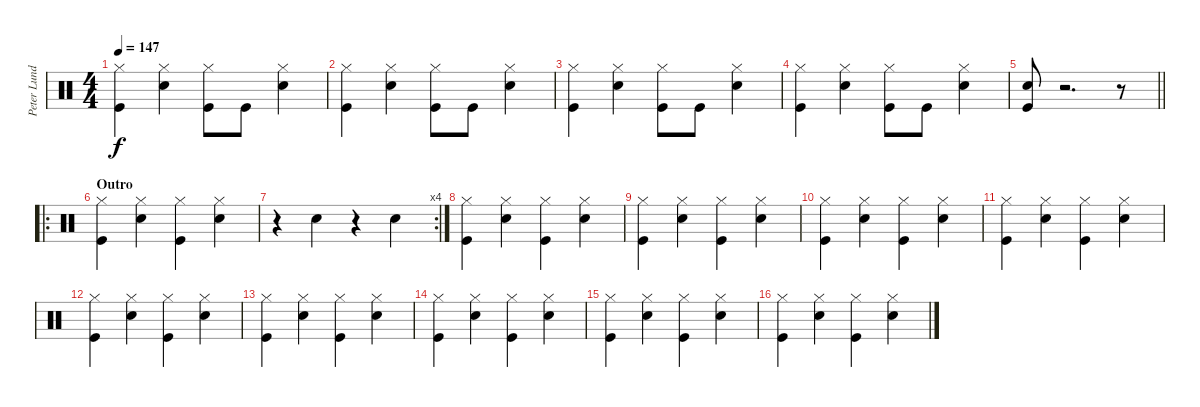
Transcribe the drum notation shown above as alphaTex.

\track ("Peter Lundholm Jensen" "Peter Lund") {instrument percussion}
\staff {score}
\articulation defaults
\ts (4 4)
\tempo 147
\clef neutral
\ks c
("Kick (hit)" "Hi-Hat (closed)").4{dy f} ("Snare (hit) 2" "Hi-Hat (closed)").4 ("Kick (hit)" "Hi-Hat (closed)").8 "Kick (hit)".8 ("Snare (hit) 2" "Hi-Hat (closed)").4 |
("Kick (hit)" "Hi-Hat (closed)").4 ("Snare (hit) 2" "Hi-Hat (closed)").4 ("Kick (hit)" "Hi-Hat (closed)").8 "Kick (hit)".8 ("Snare (hit) 2" "Hi-Hat (closed)").4 |
("Kick (hit)" "Hi-Hat (closed)").4 ("Snare (hit) 2" "Hi-Hat (closed)").4 ("Kick (hit)" "Hi-Hat (closed)").8 "Kick (hit)".8 ("Snare (hit) 2" "Hi-Hat (closed)").4 |
("Kick (hit)" "Hi-Hat (closed)").4 ("Snare (hit) 2" "Hi-Hat (closed)").4 ("Kick (hit)" "Hi-Hat (closed)").8 "Kick (hit)".8 ("Snare (hit) 2" "Hi-Hat (closed)").4 |
\barLineRight lightlight
("Kick (hit)" "Snare (hit) 2").8 r.2{d} r.8 |
\ro
\section ("" "Outro")
("Kick (hit)" "Hi-Hat (closed)").4 ("Snare (hit) 2" "Hi-Hat (closed)").4 ("Kick (hit)" "Hi-Hat (closed)").4 ("Snare (hit) 2" "Hi-Hat (closed)").4 |
\rc 4
r.4 "Snare (hit) 2".4 r.4 "Snare (hit) 2".4 |
("Kick (hit)" "Hi-Hat (closed)").4 ("Snare (hit) 2" "Hi-Hat (closed)").4 ("Kick (hit)" "Hi-Hat (closed)").4 ("Snare (hit) 2" "Hi-Hat (closed)").4 |
("Kick (hit)" "Hi-Hat (closed)").4 ("Snare (hit) 2" "Hi-Hat (closed)").4 ("Kick (hit)" "Hi-Hat (closed)").4 ("Snare (hit) 2" "Hi-Hat (closed)").4 |
("Kick (hit)" "Hi-Hat (closed)").4 ("Snare (hit) 2" "Hi-Hat (closed)").4 ("Kick (hit)" "Hi-Hat (closed)").4 ("Snare (hit) 2" "Hi-Hat (closed)").4 |
("Kick (hit)" "Hi-Hat (closed)").4 ("Snare (hit) 2" "Hi-Hat (closed)").4 ("Kick (hit)" "Hi-Hat (closed)").4 ("Snare (hit) 2" "Hi-Hat (closed)").4 |
("Kick (hit)" "Hi-Hat (closed)").4 ("Snare (hit) 2" "Hi-Hat (closed)").4 ("Kick (hit)" "Hi-Hat (closed)").4 ("Snare (hit) 2" "Hi-Hat (closed)").4 |
("Kick (hit)" "Hi-Hat (closed)").4 ("Snare (hit) 2" "Hi-Hat (closed)").4 ("Kick (hit)" "Hi-Hat (closed)").4 ("Snare (hit) 2" "Hi-Hat (closed)").4 |
("Kick (hit)" "Hi-Hat (closed)").4 ("Snare (hit) 2" "Hi-Hat (closed)").4 ("Kick (hit)" "Hi-Hat (closed)").4 ("Snare (hit) 2" "Hi-Hat (closed)").4 |
("Kick (hit)" "Hi-Hat (closed)").4 ("Snare (hit) 2" "Hi-Hat (closed)").4 ("Kick (hit)" "Hi-Hat (closed)").4 ("Snare (hit) 2" "Hi-Hat (closed)").4 |
("Kick (hit)" "Hi-Hat (closed)").4 ("Snare (hit) 2" "Hi-Hat (closed)").4 ("Kick (hit)" "Hi-Hat (closed)").4 ("Snare (hit) 2" "Hi-Hat (closed)").4
